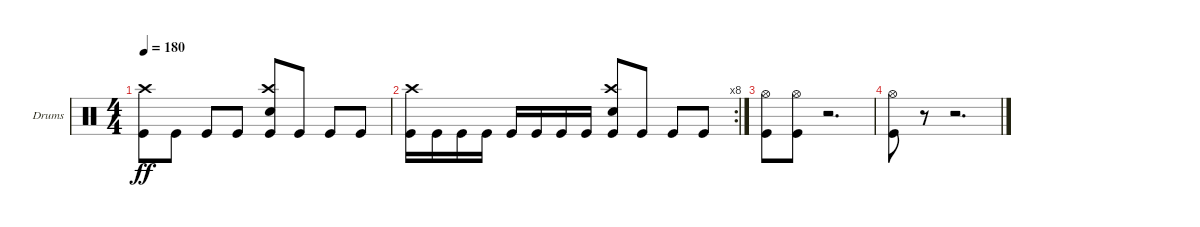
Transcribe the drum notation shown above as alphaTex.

\bracketExtendMode groupsimilarinstruments
\firstSystemTrackNameOrientation horizontal
\otherSystemsTrackNameOrientation horizontal
\track ("Drumkit" "Drums") {instrument percussion}
\staff {score}
\articulation defaults
\ts (4 4)
\tempo 180
\clef neutral
\ks c
("Kick (hit)" "Crash high (hit)").8{dy ff} "Kick (hit)".8 "Kick (hit)".8 "Kick (hit)".8 ("Kick (hit)" "Crash high (hit)" "Snare (hit) 2").8 "Kick (hit)".8 "Kick (hit)".8 "Kick (hit)".8 |
\rc 8
("Kick (hit)" "Crash high (hit)").16 "Kick (hit)".16 "Kick (hit)".16 "Kick (hit)".16 "Kick (hit)".16 "Kick (hit)".16 "Kick (hit)".16 "Kick (hit)".16 ("Kick (hit)" "Crash high (hit)" "Snare (hit) 2").8 "Kick (hit)".8 "Kick (hit)".8 "Kick (hit)".8 |
("Kick (hit)" "Hi-Hat (open)").8 ("Kick (hit)" "Hi-Hat (open)").8 r.2{d} |
("Kick (hit)" "Hi-Hat (open)").8 r.8 r.2{d}
